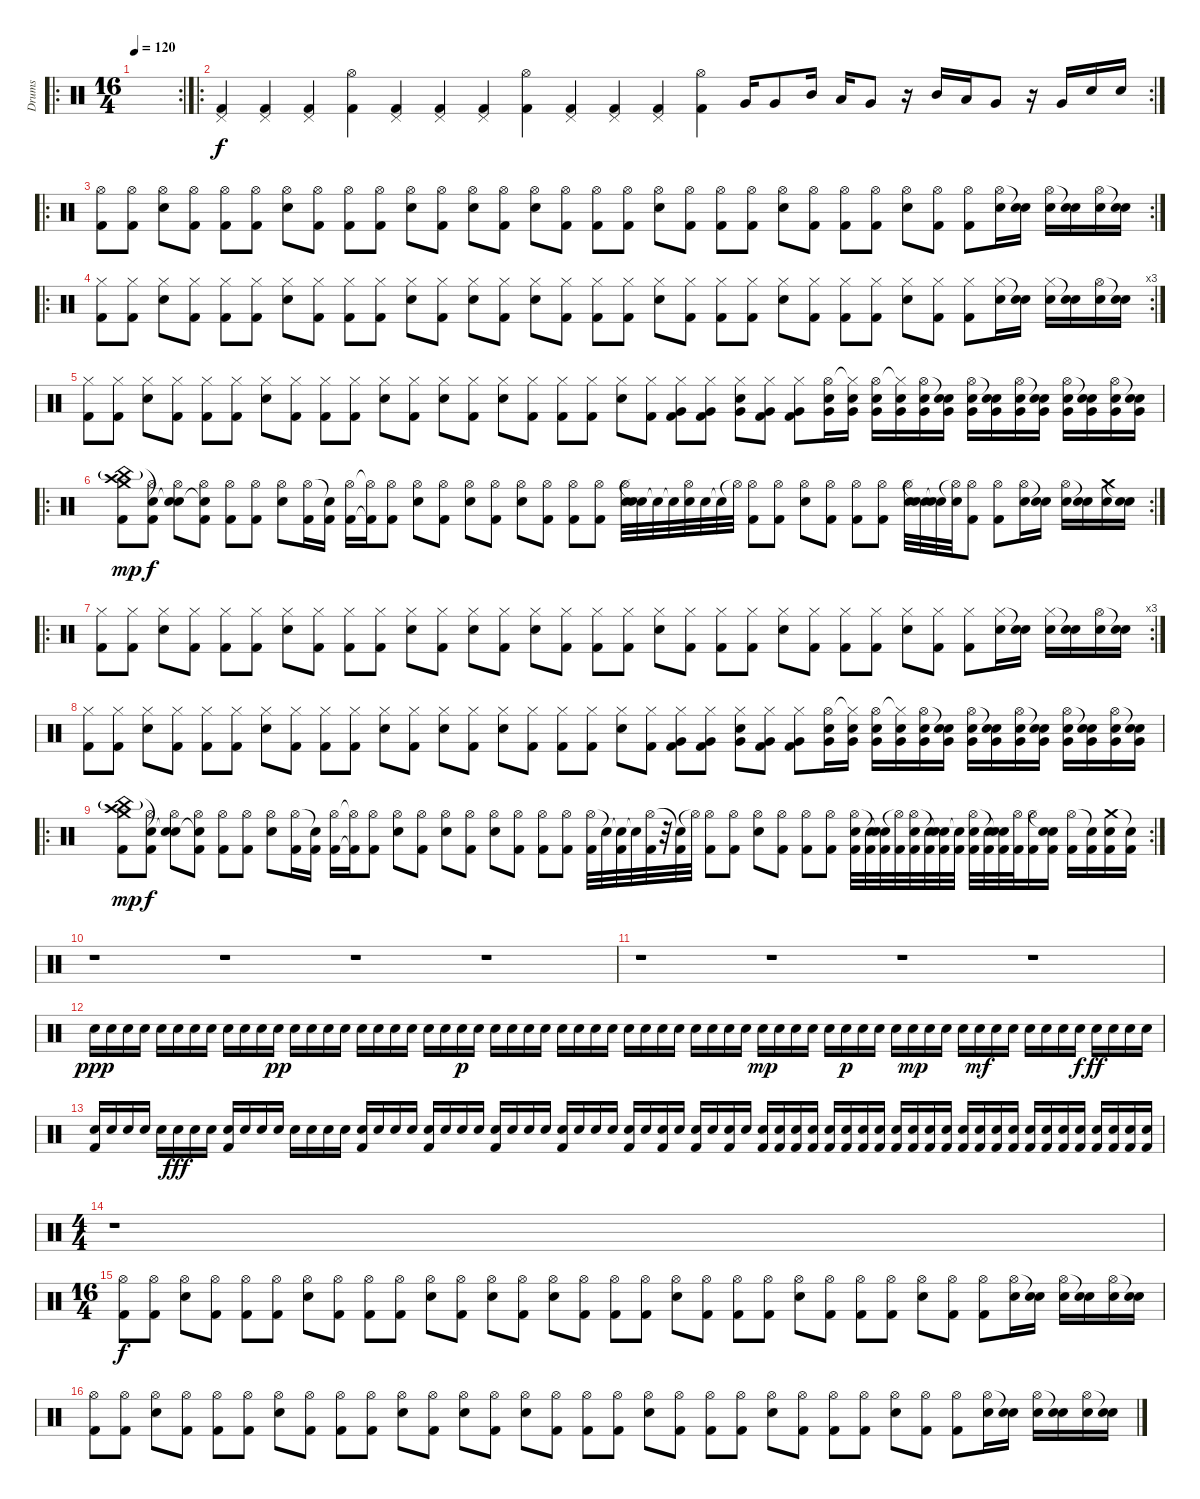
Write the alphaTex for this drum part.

\track ("Drums" "Drums") {instrument percussion}
\staff {score}
\articulation defaults
\ro
\rc 2
\ts (16 4)
\tempo 120
\clef neutral
\ks c
|
\ro
\rc 2
("Pedal Hi-Hat (hit)" "Kick (hit) 2").4 ("Pedal Hi-Hat (hit)" "Kick (hit) 2").4 ("Pedal Hi-Hat (hit)" "Kick (hit) 2").4 ("Hi-Hat (open)" "Kick (hit) 2").4 ("Pedal Hi-Hat (hit)" "Kick (hit) 2").4 ("Pedal Hi-Hat (hit)" "Kick (hit) 2").4 ("Pedal Hi-Hat (hit)" "Kick (hit) 2").4 ("Hi-Hat (open)" "Kick (hit) 2").4 ("Pedal Hi-Hat (hit)" "Kick (hit) 2").4 ("Pedal Hi-Hat (hit)" "Kick (hit) 2").4 ("Pedal Hi-Hat (hit)" "Kick (hit) 2").4 ("Hi-Hat (open)" "Kick (hit) 2").4 "Very Low Tom (hit)".16 "Very Low Tom (hit)".8 "Mid Tom (hit)".16 "Low Tom (hit)".16 "Very Low Tom (hit)".8 r.16 "Mid Tom (hit)".16 "Low Tom (hit)".16 "Very Low Tom (hit)".8 r.16 "Very Low Tom (hit)".16 "Snare (hit) 2".16 "Snare (hit) 2".16 |
\ro
\rc 2
("Hi-Hat (open)" "Kick (hit) 2").8 ("Hi-Hat (open)" "Kick (hit) 2").8 ("Hi-Hat (open)" "Snare (hit) 2").8 ("Hi-Hat (open)" "Kick (hit) 2").8 ("Hi-Hat (open)" "Kick (hit) 2").8 ("Hi-Hat (open)" "Kick (hit) 2").8 ("Hi-Hat (open)" "Snare (hit) 2").8 ("Hi-Hat (open)" "Kick (hit) 2").8 ("Hi-Hat (open)" "Kick (hit) 2").8 ("Hi-Hat (open)" "Kick (hit) 2").8 ("Hi-Hat (open)" "Snare (hit) 2").8 ("Hi-Hat (open)" "Kick (hit) 2").8 ("Hi-Hat (open)" "Snare (hit) 2").8 ("Hi-Hat (open)" "Kick (hit) 2").8 ("Hi-Hat (open)" "Snare (hit) 2").8 ("Hi-Hat (open)" "Kick (hit) 2").8 ("Hi-Hat (open)" "Kick (hit) 2").8 ("Hi-Hat (open)" "Kick (hit) 2").8 ("Hi-Hat (open)" "Snare (hit) 2").8 ("Hi-Hat (open)" "Kick (hit) 2").8 ("Hi-Hat (open)" "Kick (hit) 2").8 ("Hi-Hat (open)" "Kick (hit) 2").8 ("Hi-Hat (open)" "Snare (hit) 2").8 ("Hi-Hat (open)" "Kick (hit) 2").8 ("Hi-Hat (open)" "Kick (hit) 2").8 ("Hi-Hat (open)" "Kick (hit) 2").8 ("Hi-Hat (open)" "Snare (hit) 2").8 ("Hi-Hat (open)" "Kick (hit) 2").8 ("Hi-Hat (open)" "Kick (hit) 2").8 ("Hi-Hat (open)" "Snare (hit) 2").16 ("Snare (hit)"{t} "Snare (hit) 2").16 ("Hi-Hat (open)" "Snare (hit) 2").16 ("Snare (hit)"{t} "Snare (hit) 2").16 ("Hi-Hat (open)" "Snare (hit) 2").16 ("Snare (hit)"{t} "Snare (hit) 2").16 |
\ro
\rc 3
("Hi-Hat (closed)" "Kick (hit) 2").8 ("Hi-Hat (closed)" "Kick (hit) 2").8 ("Hi-Hat (closed)" "Snare (hit) 2").8 ("Hi-Hat (closed)" "Kick (hit) 2").8 ("Hi-Hat (closed)" "Kick (hit) 2").8 ("Hi-Hat (closed)" "Kick (hit) 2").8 ("Hi-Hat (closed)" "Snare (hit) 2").8 ("Hi-Hat (closed)" "Kick (hit) 2").8 ("Hi-Hat (closed)" "Kick (hit) 2").8 ("Hi-Hat (closed)" "Kick (hit) 2").8 ("Hi-Hat (closed)" "Snare (hit) 2").8 ("Hi-Hat (closed)" "Kick (hit) 2").8 ("Hi-Hat (closed)" "Snare (hit) 2").8 ("Hi-Hat (closed)" "Kick (hit) 2").8 ("Hi-Hat (closed)" "Snare (hit) 2").8 ("Hi-Hat (closed)" "Kick (hit) 2").8 ("Hi-Hat (closed)" "Kick (hit) 2").8 ("Hi-Hat (closed)" "Kick (hit) 2").8 ("Hi-Hat (closed)" "Snare (hit) 2").8 ("Hi-Hat (closed)" "Kick (hit) 2").8 ("Hi-Hat (closed)" "Kick (hit) 2").8 ("Hi-Hat (closed)" "Kick (hit) 2").8 ("Hi-Hat (closed)" "Snare (hit) 2").8 ("Hi-Hat (closed)" "Kick (hit) 2").8 ("Hi-Hat (closed)" "Kick (hit) 2").8 ("Hi-Hat (closed)" "Kick (hit) 2").8 ("Hi-Hat (closed)" "Snare (hit) 2").8 ("Hi-Hat (closed)" "Kick (hit) 2").8 ("Hi-Hat (closed)" "Kick (hit) 2").8 ("Hi-Hat (closed)" "Snare (hit) 2").16 ("Snare (hit)"{t} "Snare (hit) 2").16 ("Hi-Hat (closed)" "Snare (hit) 2").16 ("Snare (hit)"{t} "Snare (hit) 2").16 ("Hi-Hat (open)" "Snare (hit) 2").16 ("Snare (hit)"{t} "Snare (hit) 2").16 |
("Hi-Hat (closed)" "Kick (hit) 2").8 ("Hi-Hat (closed)" "Kick (hit) 2").8 ("Hi-Hat (closed)" "Snare (hit) 2").8 ("Hi-Hat (closed)" "Kick (hit) 2").8 ("Hi-Hat (closed)" "Kick (hit) 2").8 ("Hi-Hat (closed)" "Kick (hit) 2").8 ("Hi-Hat (closed)" "Snare (hit) 2").8 ("Hi-Hat (closed)" "Kick (hit) 2").8 ("Hi-Hat (closed)" "Kick (hit) 2").8 ("Hi-Hat (closed)" "Kick (hit) 2").8 ("Hi-Hat (closed)" "Snare (hit) 2").8 ("Hi-Hat (closed)" "Kick (hit) 2").8 ("Hi-Hat (closed)" "Snare (hit) 2").8 ("Hi-Hat (closed)" "Kick (hit) 2").8 ("Hi-Hat (closed)" "Snare (hit) 2").8 ("Hi-Hat (closed)" "Kick (hit) 2").8 ("Hi-Hat (closed)" "Kick (hit) 2").8 ("Hi-Hat (closed)" "Kick (hit) 2").8 ("Hi-Hat (closed)" "Snare (hit) 2").8 ("Hi-Hat (closed)" "Kick (hit) 2").8 ("Hi-Hat (closed)" "Very Low Tom (hit)" "Kick (hit) 2").8 ("Hi-Hat (closed)" "Very Low Tom (hit)" "Kick (hit) 2").8 ("Hi-Hat (closed)" "Very Low Tom (hit)" "Snare (hit) 2").8 ("Hi-Hat (closed)" "Very Low Tom (hit)" "Kick (hit) 2").8 ("Hi-Hat (closed)" "Very Low Tom (hit)" "Kick (hit) 2").8 ("Hi-Hat (open)" "Very Low Tom (hit)" "Snare (hit) 2").16 ("Hi-Hat (closed)"{t} "Very Low Tom (hit)" "Snare (hit) 2").16 ("Hi-Hat (open)" "Very Low Tom (hit)" "Snare (hit) 2").16 ("Hi-Hat (closed)"{t} "Very Low Tom (hit)" "Snare (hit) 2").16 ("Hi-Hat (open)" "Very Low Tom (hit)" "Snare (hit) 2").16 ("Snare (hit)"{t} "Very Low Tom (hit)" "Snare (hit) 2").16 ("Hi-Hat (open)" "Very Low Tom (hit)" "Snare (hit) 2").16 ("Snare (hit)"{t} "Very Low Tom (hit)" "Snare (hit) 2").16 ("Hi-Hat (open)" "Very Low Tom (hit)" "Snare (hit) 2").16 ("Snare (hit)"{t} "Very Low Tom (hit)" "Snare (hit) 2").16 ("Hi-Hat (open)" "Very Low Tom (hit)" "Snare (hit) 2").16 ("Snare (hit)"{t} "Very Low Tom (hit)" "Snare (hit) 2").16 ("Hi-Hat (open)" "Very Low Tom (hit)" "Snare (hit) 2").16 ("Snare (hit)"{t} "Very Low Tom (hit)" "Snare (hit) 2").16 |
\ro
\rc 2
("Crash high (hit)" "China (hit)"{g} "Crash medium (hit)" "Kick (hit) 2").8{dy mp} ("Hi-Hat (open)" "Snare (hit)"{t} "Kick (hit) 2").8{dy f} ("Hi-Hat (open)" "Snare (hit)"{t} "Snare (hit) 2").8 ("Hi-Hat (open)" "Snare (hit)"{t} "Kick (hit) 2").8 ("Hi-Hat (open)" "Kick (hit) 2").8 ("Hi-Hat (open)" "Kick (hit) 2").8 ("Hi-Hat (open)" "Snare (hit) 2").8 ("Hi-Hat (open)" "Kick (hit) 2").16 ("Snare (hit)"{t} "Kick (hit) 2").16 ("Hi-Hat (open)" "Kick (hit) 2").16 ("Hi-Hat (open)"{t} "Kick (hit) 2"{t}).16 ("Hi-Hat (open)" "Kick (hit) 2").8 ("Hi-Hat (open)" "Snare (hit) 2").8 ("Hi-Hat (open)" "Kick (hit) 2").8 ("Hi-Hat (open)" "Snare (hit) 2").8 ("Hi-Hat (open)" "Kick (hit) 2").8 ("Hi-Hat (open)" "Snare (hit) 2").8 ("Hi-Hat (open)" "Kick (hit) 2").8 ("Hi-Hat (open)" "Kick (hit) 2").8 ("Hi-Hat (open)" "Kick (hit) 2").8 ("Hi-Hat (open)" "Snare (hit) 2").32 ("Snare (hit)"{t} "Snare (hit) 2").32 "Snare (hit)"{t}.32 "Snare (hit)"{t}.32 ("Hi-Hat (open)" "Snare (hit) 2").32 "Snare (hit) 2".32 "Snare (hit)"{t}.32 "Hi-Hat (open)"{t}.32 ("Hi-Hat (open)" "Kick (hit) 2").8 ("Hi-Hat (open)" "Kick (hit) 2").8 ("Hi-Hat (open)" "Snare (hit) 2").8 ("Hi-Hat (open)" "Kick (hit) 2").8 ("Hi-Hat (open)" "Kick (hit) 2").8 ("Hi-Hat (open)" "Kick (hit) 2").8 ("Hi-Hat (open)" "Snare (hit) 2").32 ("Snare (hit)"{t} "Snare (hit) 2").32 ("Snare (hit)"{t} "Snare (hit) 2").32 ("Hi-Hat (open)"{t} "Snare (hit) 2").32 ("Hi-Hat (open)" "Kick (hit) 2").8 ("Hi-Hat (open)" "Kick (hit) 2").8 ("Hi-Hat (open)" "Snare (hit) 2").16 ("Snare (hit)"{t} "Snare (hit) 2").16 ("Hi-Hat (open)" "Snare (hit) 2").16 ("Snare (hit)"{t} "Snare (hit) 2").16 ("Crash medium (hit)" "Snare (hit) 2").16 ("Snare (hit)"{t} "Snare (hit) 2").16 |
\ro
\rc 3
("Hi-Hat (closed)" "Kick (hit) 2").8 ("Hi-Hat (closed)" "Kick (hit) 2").8 ("Hi-Hat (closed)" "Snare (hit) 2").8 ("Hi-Hat (closed)" "Kick (hit) 2").8 ("Hi-Hat (closed)" "Kick (hit) 2").8 ("Hi-Hat (closed)" "Kick (hit) 2").8 ("Hi-Hat (closed)" "Snare (hit) 2").8 ("Hi-Hat (closed)" "Kick (hit) 2").8 ("Hi-Hat (closed)" "Kick (hit) 2").8 ("Hi-Hat (closed)" "Kick (hit) 2").8 ("Hi-Hat (closed)" "Snare (hit) 2").8 ("Hi-Hat (closed)" "Kick (hit) 2").8 ("Hi-Hat (closed)" "Snare (hit) 2").8 ("Hi-Hat (closed)" "Kick (hit) 2").8 ("Hi-Hat (closed)" "Snare (hit) 2").8 ("Hi-Hat (closed)" "Kick (hit) 2").8 ("Hi-Hat (closed)" "Kick (hit) 2").8 ("Hi-Hat (closed)" "Kick (hit) 2").8 ("Hi-Hat (closed)" "Snare (hit) 2").8 ("Hi-Hat (closed)" "Kick (hit) 2").8 ("Hi-Hat (closed)" "Kick (hit) 2").8 ("Hi-Hat (closed)" "Kick (hit) 2").8 ("Hi-Hat (closed)" "Snare (hit) 2").8 ("Hi-Hat (closed)" "Kick (hit) 2").8 ("Hi-Hat (closed)" "Kick (hit) 2").8 ("Hi-Hat (closed)" "Kick (hit) 2").8 ("Hi-Hat (closed)" "Snare (hit) 2").8 ("Hi-Hat (closed)" "Kick (hit) 2").8 ("Hi-Hat (closed)" "Kick (hit) 2").8 ("Hi-Hat (closed)" "Snare (hit) 2").16 ("Snare (hit)"{t} "Snare (hit) 2").16 ("Hi-Hat (closed)" "Snare (hit) 2").16 ("Snare (hit)"{t} "Snare (hit) 2").16 ("Hi-Hat (open)" "Snare (hit) 2").16 ("Snare (hit)"{t} "Snare (hit) 2").16 |
("Hi-Hat (closed)" "Kick (hit) 2").8 ("Hi-Hat (closed)" "Kick (hit) 2").8 ("Hi-Hat (closed)" "Snare (hit) 2").8 ("Hi-Hat (closed)" "Kick (hit) 2").8 ("Hi-Hat (closed)" "Kick (hit) 2").8 ("Hi-Hat (closed)" "Kick (hit) 2").8 ("Hi-Hat (closed)" "Snare (hit) 2").8 ("Hi-Hat (closed)" "Kick (hit) 2").8 ("Hi-Hat (closed)" "Kick (hit) 2").8 ("Hi-Hat (closed)" "Kick (hit) 2").8 ("Hi-Hat (closed)" "Snare (hit) 2").8 ("Hi-Hat (closed)" "Kick (hit) 2").8 ("Hi-Hat (closed)" "Snare (hit) 2").8 ("Hi-Hat (closed)" "Kick (hit) 2").8 ("Hi-Hat (closed)" "Snare (hit) 2").8 ("Hi-Hat (closed)" "Kick (hit) 2").8 ("Hi-Hat (closed)" "Kick (hit) 2").8 ("Hi-Hat (closed)" "Kick (hit) 2").8 ("Hi-Hat (closed)" "Snare (hit) 2").8 ("Hi-Hat (closed)" "Kick (hit) 2").8 ("Hi-Hat (closed)" "Very Low Tom (hit)" "Kick (hit) 2").8 ("Hi-Hat (closed)" "Very Low Tom (hit)" "Kick (hit) 2").8 ("Hi-Hat (closed)" "Very Low Tom (hit)" "Snare (hit) 2").8 ("Hi-Hat (closed)" "Very Low Tom (hit)" "Kick (hit) 2").8 ("Hi-Hat (closed)" "Very Low Tom (hit)" "Kick (hit) 2").8 ("Hi-Hat (open)" "Very Low Tom (hit)" "Snare (hit) 2").16 ("Hi-Hat (closed)"{t} "Very Low Tom (hit)" "Snare (hit) 2").16 ("Hi-Hat (open)" "Very Low Tom (hit)" "Snare (hit) 2").16 ("Hi-Hat (closed)"{t} "Very Low Tom (hit)" "Snare (hit) 2").16 ("Hi-Hat (open)" "Very Low Tom (hit)" "Snare (hit) 2").16 ("Snare (hit)"{t} "Very Low Tom (hit)" "Snare (hit) 2").16 ("Hi-Hat (open)" "Very Low Tom (hit)" "Snare (hit) 2").16 ("Snare (hit)"{t} "Very Low Tom (hit)" "Snare (hit) 2").16 ("Hi-Hat (open)" "Very Low Tom (hit)" "Snare (hit) 2").16 ("Snare (hit)"{t} "Very Low Tom (hit)" "Snare (hit) 2").16 ("Hi-Hat (open)" "Very Low Tom (hit)" "Snare (hit) 2").16 ("Snare (hit)"{t} "Very Low Tom (hit)" "Snare (hit) 2").16 ("Hi-Hat (open)" "Very Low Tom (hit)" "Snare (hit) 2").16 ("Snare (hit)"{t} "Very Low Tom (hit)" "Snare (hit) 2").16 |
\ro
\rc 2
("Crash high (hit)" "China (hit)"{g} "Crash medium (hit)" "Kick (hit) 2").8{dy mp} ("Hi-Hat (open)" "Snare (hit)"{t} "Kick (hit) 2").8{dy f} ("Hi-Hat (open)" "Snare (hit)"{t} "Snare (hit) 2").8 ("Hi-Hat (open)" "Snare (hit)"{t} "Kick (hit) 2").8 ("Hi-Hat (open)" "Kick (hit) 2").8 ("Hi-Hat (open)" "Kick (hit) 2").8 ("Hi-Hat (open)" "Snare (hit) 2").8 ("Hi-Hat (open)" "Kick (hit) 2").16 ("Snare (hit)"{t} "Kick (hit) 2").16 ("Hi-Hat (open)" "Kick (hit) 2").16 ("Hi-Hat (open)"{t} "Kick (hit) 2"{t}).16 ("Hi-Hat (open)" "Kick (hit) 2").8 ("Hi-Hat (open)" "Snare (hit) 2").8 ("Hi-Hat (open)" "Kick (hit) 2").8 ("Hi-Hat (open)" "Snare (hit) 2").8 ("Hi-Hat (open)" "Kick (hit) 2").8 ("Hi-Hat (open)" "Snare (hit) 2").8 ("Hi-Hat (open)" "Kick (hit) 2").8 ("Hi-Hat (open)" "Kick (hit) 2").8 ("Hi-Hat (open)" "Kick (hit) 2").8 ("Hi-Hat (open)" "Kick (hit) 2").32 "Snare (hit)"{t}.32 ("Snare (hit)"{t} "Kick (hit) 2").32 "Snare (hit)"{t}.32 ("Hi-Hat (open)" "Kick (hit) 2").32 r.32 ("Snare (hit)"{t} "Kick (hit) 2").32 "Hi-Hat (open)"{t}.32 ("Hi-Hat (open)" "Kick (hit) 2").8 ("Hi-Hat (open)" "Kick (hit) 2").8 ("Hi-Hat (open)" "Snare (hit) 2").8 ("Hi-Hat (open)" "Kick (hit) 2").8 ("Hi-Hat (open)" "Kick (hit) 2").8 ("Hi-Hat (open)" "Kick (hit) 2").8 ("Hi-Hat (open)" "Electric Snare (hit)" "Kick (hit) 2").32 ("Snare (hit)"{t} "Kick (hit) 2").32 ("Snare (hit)"{t} "Electric Snare (hit)" "Kick (hit) 2").32 ("Hi-Hat (open)"{t} "Kick (hit) 2").32 ("Hi-Hat (open)" "Electric Snare (hit)" "Kick (hit) 2").32 ("Snare (hit)"{t} "Kick (hit) 2").32 ("Snare (hit)"{t} "Electric Snare (hit)" "Kick (hit) 2").32 ("Snare (hit)"{t} "Kick (hit) 2").32 ("Hi-Hat (open)" "Electric Snare (hit)" "Kick (hit) 2").32 ("Snare (hit)"{t} "Kick (hit) 2").32 ("Snare (hit)"{t} "Electric Snare (hit)" "Kick (hit) 2").32 ("Hi-Hat (open)" "Kick (hit) 2").32 ("Hi-Hat (open)" "Kick (hit) 2").16 ("Snare (hit)"{t} "Electric Snare (hit)" "Kick (hit) 2").16 ("Hi-Hat (open)" "Kick (hit) 2").16 ("Snare (hit)"{t} "Kick (hit) 2").16 ("Crash medium (hit)" "Electric Snare (hit)" "Kick (hit) 2").16 ("Snare (hit)"{t} "Kick (hit) 2").16 |
r.1 r.1 r.1 r.1 |
r.1 r.1 r.1 r.1 |
"Snare (hit) 2".16{dy ppp} "Snare (hit) 2".16 "Snare (hit) 2".16 "Snare (hit) 2".16 "Snare (hit) 2".16 "Snare (hit) 2".16 "Snare (hit) 2".16 "Snare (hit) 2".16 "Snare (hit) 2".16 "Snare (hit) 2".16 "Snare (hit) 2".16 "Snare (hit) 2".16{dy pp} "Snare (hit) 2".16 "Snare (hit) 2".16 "Snare (hit) 2".16 "Snare (hit) 2".16 "Snare (hit) 2".16 "Snare (hit) 2".16 "Snare (hit) 2".16 "Snare (hit) 2".16 "Snare (hit) 2".16 "Snare (hit) 2".16 "Snare (hit) 2".16{dy p} "Snare (hit) 2".16 "Snare (hit) 2".16 "Snare (hit) 2".16 "Snare (hit) 2".16 "Snare (hit) 2".16 "Snare (hit) 2".16 "Snare (hit) 2".16 "Snare (hit) 2".16 "Snare (hit) 2".16 "Snare (hit) 2".16 "Snare (hit) 2".16 "Snare (hit) 2".16 "Snare (hit) 2".16 "Snare (hit) 2".16 "Snare (hit) 2".16 "Snare (hit) 2".16 "Snare (hit) 2".16 "Snare (hit) 2".16{dy mp} "Snare (hit) 2".16 "Snare (hit) 2".16 "Snare (hit) 2".16 "Snare (hit) 2".16 "Snare (hit) 2".16{dy p} "Snare (hit) 2".16 "Snare (hit) 2".16 "Snare (hit) 2".16 "Snare (hit) 2".16{dy mp} "Snare (hit) 2".16 "Snare (hit) 2".16 "Snare (hit) 2".16 "Snare (hit) 2".16{dy mf} "Snare (hit) 2".16 "Snare (hit) 2".16 "Snare (hit) 2".16 "Snare (hit) 2".16 "Snare (hit) 2".16 "Snare (hit) 2".16{dy f} "Snare (hit) 2".16{dy ff} "Snare (hit) 2".16 "Snare (hit) 2".16 "Snare (hit) 2".16 |
("Kick (hit) 2" "Snare (hit) 2").16 "Snare (hit) 2".16 "Snare (hit) 2".16 "Snare (hit) 2".16 "Snare (hit) 2".16 "Snare (hit) 2".16{dy fff} "Snare (hit) 2".16 "Snare (hit) 2".16 ("Kick (hit) 2" "Snare (hit) 2").16 "Snare (hit) 2".16 "Snare (hit) 2".16 "Snare (hit) 2".16 "Snare (hit) 2".16 "Snare (hit) 2".16 "Snare (hit) 2".16 "Snare (hit) 2".16 ("Kick (hit) 2" "Snare (hit) 2").16 "Snare (hit) 2".16 "Snare (hit) 2".16 "Snare (hit) 2".16 ("Kick (hit) 2" "Snare (hit) 2").16 "Snare (hit) 2".16 "Snare (hit) 2".16 "Snare (hit) 2".16 ("Kick (hit) 2" "Snare (hit) 2").16 "Snare (hit) 2".16 "Snare (hit) 2".16 "Snare (hit) 2".16 ("Kick (hit) 2" "Snare (hit) 2").16 "Snare (hit) 2".16 "Snare (hit) 2".16 "Snare (hit) 2".16 ("Kick (hit) 2" "Snare (hit) 2").16 "Snare (hit) 2".16 ("Kick (hit) 2" "Snare (hit) 2").16 "Snare (hit) 2".16 ("Kick (hit) 2" "Snare (hit) 2").16 "Snare (hit) 2".16 ("Kick (hit) 2" "Snare (hit) 2").16 "Snare (hit) 2".16 ("Kick (hit) 2" "Snare (hit) 2").16 ("Kick (hit) 2" "Snare (hit) 2").16 ("Kick (hit) 2" "Snare (hit) 2").16 ("Kick (hit) 2" "Snare (hit) 2").16 ("Kick (hit) 2" "Snare (hit) 2").16 ("Kick (hit) 2" "Snare (hit) 2").16 ("Kick (hit) 2" "Snare (hit) 2").16 ("Kick (hit) 2" "Snare (hit) 2").16 ("Kick (hit) 2" "Snare (hit) 2").16 ("Kick (hit) 2" "Snare (hit) 2").16 ("Kick (hit) 2" "Snare (hit) 2").16 ("Kick (hit) 2" "Snare (hit) 2").16 ("Kick (hit) 2" "Snare (hit) 2").16 ("Kick (hit) 2" "Snare (hit) 2").16 ("Kick (hit) 2" "Snare (hit) 2").16 ("Kick (hit) 2" "Snare (hit) 2").16 ("Kick (hit) 2" "Snare (hit) 2").16 ("Kick (hit) 2" "Snare (hit) 2").16 ("Kick (hit) 2" "Snare (hit) 2").16 ("Kick (hit) 2" "Snare (hit) 2").16 ("Kick (hit) 2" "Snare (hit) 2").16 ("Kick (hit) 2" "Snare (hit) 2").16 ("Kick (hit) 2" "Snare (hit) 2").16 ("Kick (hit) 2" "Snare (hit) 2").16 |
\ts (4 4)
r.1 |
\ts (16 4)
("Hi-Hat (open)" "Kick (hit) 2").8{dy f} ("Hi-Hat (open)" "Kick (hit) 2").8 ("Hi-Hat (open)" "Snare (hit) 2").8 ("Hi-Hat (open)" "Kick (hit) 2").8 ("Hi-Hat (open)" "Kick (hit) 2").8 ("Hi-Hat (open)" "Kick (hit) 2").8 ("Hi-Hat (open)" "Snare (hit) 2").8 ("Hi-Hat (open)" "Kick (hit) 2").8 ("Hi-Hat (open)" "Kick (hit) 2").8 ("Hi-Hat (open)" "Kick (hit) 2").8 ("Hi-Hat (open)" "Snare (hit) 2").8 ("Hi-Hat (open)" "Kick (hit) 2").8 ("Hi-Hat (open)" "Snare (hit) 2").8 ("Hi-Hat (open)" "Kick (hit) 2").8 ("Hi-Hat (open)" "Snare (hit) 2").8 ("Hi-Hat (open)" "Kick (hit) 2").8 ("Hi-Hat (open)" "Kick (hit) 2").8 ("Hi-Hat (open)" "Kick (hit) 2").8 ("Hi-Hat (open)" "Snare (hit) 2").8 ("Hi-Hat (open)" "Kick (hit) 2").8 ("Hi-Hat (open)" "Kick (hit) 2").8 ("Hi-Hat (open)" "Kick (hit) 2").8 ("Hi-Hat (open)" "Snare (hit) 2").8 ("Hi-Hat (open)" "Kick (hit) 2").8 ("Hi-Hat (open)" "Kick (hit) 2").8 ("Hi-Hat (open)" "Kick (hit) 2").8 ("Hi-Hat (open)" "Snare (hit) 2").8 ("Hi-Hat (open)" "Kick (hit) 2").8 ("Hi-Hat (open)" "Kick (hit) 2").8 ("Hi-Hat (open)" "Snare (hit) 2").16 ("Snare (hit)"{t} "Snare (hit) 2").16 ("Hi-Hat (open)" "Snare (hit) 2").16 ("Snare (hit)"{t} "Snare (hit) 2").16 ("Hi-Hat (open)" "Snare (hit) 2").16 ("Snare (hit)"{t} "Snare (hit) 2").16 |
("Hi-Hat (open)" "Kick (hit) 2").8 ("Hi-Hat (open)" "Kick (hit) 2").8 ("Hi-Hat (open)" "Snare (hit) 2").8 ("Hi-Hat (open)" "Kick (hit) 2").8 ("Hi-Hat (open)" "Kick (hit) 2").8 ("Hi-Hat (open)" "Kick (hit) 2").8 ("Hi-Hat (open)" "Snare (hit) 2").8 ("Hi-Hat (open)" "Kick (hit) 2").8 ("Hi-Hat (open)" "Kick (hit) 2").8 ("Hi-Hat (open)" "Kick (hit) 2").8 ("Hi-Hat (open)" "Snare (hit) 2").8 ("Hi-Hat (open)" "Kick (hit) 2").8 ("Hi-Hat (open)" "Snare (hit) 2").8 ("Hi-Hat (open)" "Kick (hit) 2").8 ("Hi-Hat (open)" "Snare (hit) 2").8 ("Hi-Hat (open)" "Kick (hit) 2").8 ("Hi-Hat (open)" "Kick (hit) 2").8 ("Hi-Hat (open)" "Kick (hit) 2").8 ("Hi-Hat (open)" "Snare (hit) 2").8 ("Hi-Hat (open)" "Kick (hit) 2").8 ("Hi-Hat (open)" "Kick (hit) 2").8 ("Hi-Hat (open)" "Kick (hit) 2").8 ("Hi-Hat (open)" "Snare (hit) 2").8 ("Hi-Hat (open)" "Kick (hit) 2").8 ("Hi-Hat (open)" "Kick (hit) 2").8 ("Hi-Hat (open)" "Kick (hit) 2").8 ("Hi-Hat (open)" "Snare (hit) 2").8 ("Hi-Hat (open)" "Kick (hit) 2").8 ("Hi-Hat (open)" "Kick (hit) 2").8 ("Hi-Hat (open)" "Snare (hit) 2").16 ("Snare (hit)"{t} "Snare (hit) 2").16 ("Hi-Hat (open)" "Snare (hit) 2").16 ("Snare (hit)"{t} "Snare (hit) 2").16 ("Hi-Hat (open)" "Snare (hit) 2").16 ("Snare (hit)"{t} "Snare (hit) 2").16
